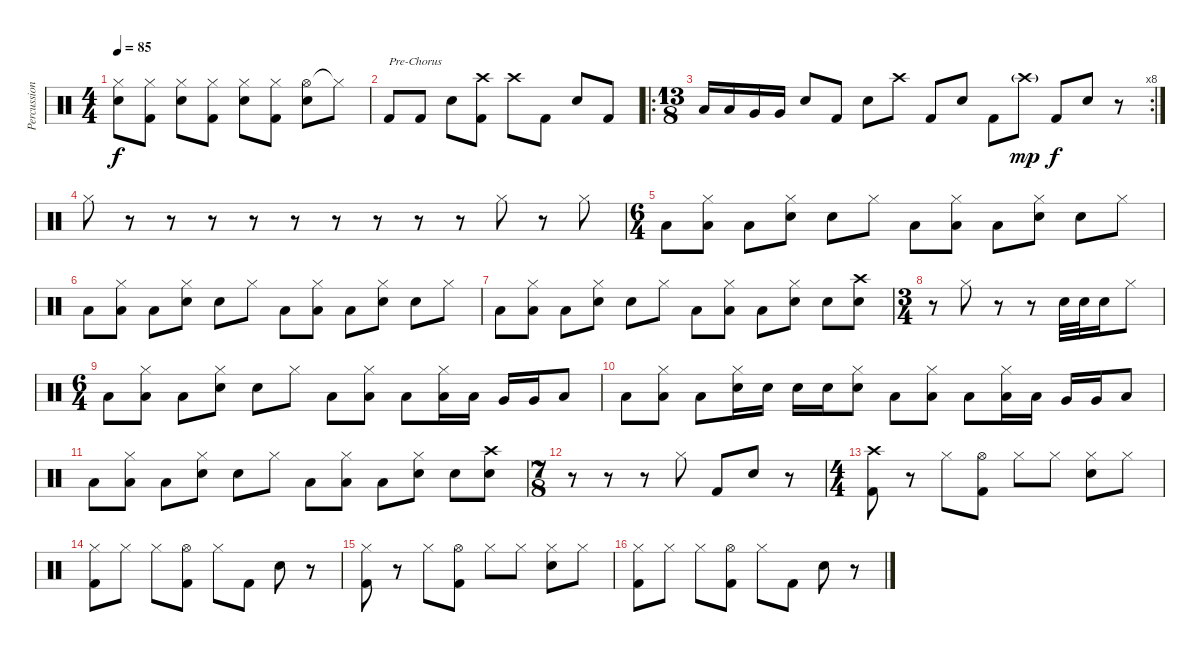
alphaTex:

\track ("Percussion" "Percussion") {instrument percussion}
\staff {score}
\articulation defaults
\ts (4 4)
\tempo 85
\clef neutral
\ks c
("Hi-Hat (closed)" "Electric Snare (hit)").8{dy f} ("Hi-Hat (closed)" "Kick (hit) 2").8 ("Hi-Hat (closed)" "Electric Snare (hit)").8 ("Hi-Hat (closed)" "Kick (hit) 2").8 ("Hi-Hat (closed)" "Electric Snare (hit)").8 ("Hi-Hat (closed)" "Kick (hit) 2").8 ("Hi-Hat (open)" "Electric Snare (hit)").8 "Hi-Hat (closed)"{t}.8 |
"Kick (hit) 2".8{txt "Pre-Chorus"} "Kick (hit) 2".8 "Electric Snare (hit)".8 ("Crash high (hit)" "Kick (hit) 2").8 "Crash high (hit)".8 "Kick (hit) 2".8 "Electric Snare (hit)".8 "Kick (hit) 2".8 |
\ro
\rc 8
\ts (13 8)
"Low Tom (hit)".16 "Low Tom (hit)".16 "Very Low Tom (hit)".16 "Very Low Tom (hit)".16 "Electric Snare (hit)".8 "Kick (hit) 2".8 "Electric Snare (hit)".8 "Crash high (hit)".8 "Kick (hit) 2".8 "Electric Snare (hit)".8 "Kick (hit) 2".8 "Crash high (hit)"{g}.8{dy mp} "Kick (hit) 2".8{dy f} "Electric Snare (hit)".8 r.8 |
"Hi-Hat (closed)".8 r.8 r.8 r.8 r.8 r.8 r.8 r.8 r.8 r.8 "Hi-Hat (closed)".8 r.8 "Hi-Hat (closed)".8 |
\ts (6 4)
"Low Floor Tom (hit)".8 ("Hi-Hat (closed)" "Low Tom (hit)").8 "Low Floor Tom (hit)".8 ("Hi-Hat (closed)" "Snare (hit) 2").8 "Snare (hit) 2".8 "Hi-Hat (closed)".8 "Low Floor Tom (hit)".8 ("Hi-Hat (closed)" "Low Tom (hit)").8 "Low Floor Tom (hit)".8 ("Hi-Hat (closed)" "Snare (hit) 2").8 "Snare (hit) 2".8 "Hi-Hat (closed)".8 |
"Low Floor Tom (hit)".8 ("Hi-Hat (closed)" "Low Tom (hit)").8 "Low Floor Tom (hit)".8 ("Hi-Hat (closed)" "Snare (hit) 2").8 "Snare (hit) 2".8 "Hi-Hat (closed)".8 "Low Floor Tom (hit)".8 ("Hi-Hat (closed)" "Low Tom (hit)").8 "Low Floor Tom (hit)".8 ("Hi-Hat (closed)" "Snare (hit) 2").8 "Snare (hit) 2".8 "Hi-Hat (closed)".8 |
"Low Floor Tom (hit)".8 ("Hi-Hat (closed)" "Low Tom (hit)").8 "Low Floor Tom (hit)".8 ("Hi-Hat (closed)" "Snare (hit) 2").8 "Snare (hit) 2".8 "Hi-Hat (closed)".8 "Low Floor Tom (hit)".8 ("Hi-Hat (closed)" "Low Tom (hit)").8 "Low Floor Tom (hit)".8 ("Hi-Hat (closed)" "Snare (hit) 2").8 "Snare (hit) 2".8 ("Crash high (hit)" "Snare (hit) 2").8 |
\ts (3 4)
r.8 "Hi-Hat (closed)".8 r.8 r.8 "Snare (hit) 2".32 "Snare (hit) 2".32 "Snare (hit) 2".16 "Hi-Hat (closed)".8 |
\ts (6 4)
"Low Floor Tom (hit)".8 ("Hi-Hat (closed)" "Low Tom (hit)").8 "Low Floor Tom (hit)".8 ("Hi-Hat (closed)" "Snare (hit) 2").8 "Snare (hit) 2".8 "Hi-Hat (closed)".8 "Low Floor Tom (hit)".8 ("Hi-Hat (closed)" "Low Tom (hit)").8 "Low Floor Tom (hit)".8 ("Hi-Hat (closed)" "Low Tom (hit)").16 "Low Tom (hit)".16 "Very Low Tom (hit)".16 "Very Low Tom (hit)".16 "Low Floor Tom (hit)".8 |
"Low Floor Tom (hit)".8 ("Hi-Hat (closed)" "Low Tom (hit)").8 "Low Floor Tom (hit)".8 ("Hi-Hat (closed)" "Snare (hit) 2").16 "Snare (hit) 2".16 "Snare (hit) 2".16 "Snare (hit) 2".16 ("Hi-Hat (closed)" "Snare (hit) 2").8 "Low Floor Tom (hit)".8 ("Hi-Hat (closed)" "Low Tom (hit)").8 "Low Floor Tom (hit)".8 ("Hi-Hat (closed)" "Low Tom (hit)").16 "Low Tom (hit)".16 "Very Low Tom (hit)".16 "Very Low Tom (hit)".16 "Low Floor Tom (hit)".8 |
"Low Floor Tom (hit)".8 ("Hi-Hat (closed)" "Low Tom (hit)").8 "Low Floor Tom (hit)".8 ("Hi-Hat (closed)" "Snare (hit) 2").8 "Snare (hit) 2".8 "Hi-Hat (closed)".8 "Low Floor Tom (hit)".8 ("Hi-Hat (closed)" "Low Tom (hit)").8 "Low Floor Tom (hit)".8 ("Hi-Hat (closed)" "Snare (hit) 2").8 "Snare (hit) 2".8 ("Crash high (hit)" "Snare (hit) 2").8 |
\ts (7 8)
r.8 r.8 r.8 "Hi-Hat (closed)".8 "Kick (hit) 2".8 "Electric Snare (hit)".8 r.8 |
\ts (4 4)
("Crash high (hit)" "Kick (hit) 2").8 r.8 "Hi-Hat (closed)".8 ("Hi-Hat (open)" "Kick (hit) 2").8 "Hi-Hat (closed)".8 "Hi-Hat (closed)".8 ("Hi-Hat (closed)" "Electric Snare (hit)").8 "Hi-Hat (closed)".8 |
("Hi-Hat (closed)" "Kick (hit) 2").8 "Hi-Hat (closed)".8 "Hi-Hat (closed)".8 ("Hi-Hat (open)" "Kick (hit) 2").8 "Hi-Hat (closed)".8 "Kick (hit) 2".8 "Electric Snare (hit)".8 r.8 |
("Hi-Hat (closed)" "Kick (hit) 2").8 r.8 "Hi-Hat (closed)".8 ("Hi-Hat (open)" "Kick (hit) 2").8 "Hi-Hat (closed)".8 "Hi-Hat (closed)".8 ("Hi-Hat (closed)" "Electric Snare (hit)").8 "Hi-Hat (closed)".8 |
("Hi-Hat (closed)" "Kick (hit) 2").8 "Hi-Hat (closed)".8 "Hi-Hat (closed)".8 ("Hi-Hat (open)" "Kick (hit) 2").8 "Hi-Hat (closed)".8 "Kick (hit) 2".8 "Electric Snare (hit)".8 r.8
